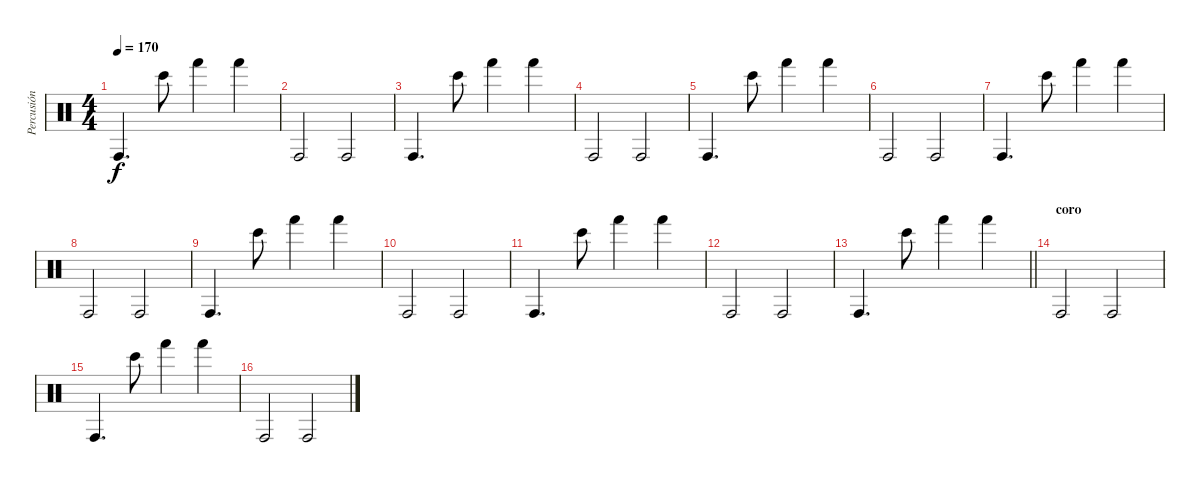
\track ("Percusión" "Percusión") {instrument percussion}
\staff {score}
\articulation defaults
\ts (4 4)
\tempo 170
\clef neutral
\ks c "Conga high (hit)".4{d dy f} "Bongo High (hit)".8 "Hand (hit)".4 "Hand (hit)".4
|
"Conga high (hit)".2 "Conga high (hit)".2 |
"Conga high (hit)".4{d} "Bongo High (hit)".8 "Hand (hit)".4 "Hand (hit)".4 |
"Conga high (hit)".2 "Conga high (hit)".2 |
"Conga high (hit)".4{d} "Bongo High (hit)".8 "Hand (hit)".4 "Hand (hit)".4 |
"Conga high (hit)".2 "Conga high (hit)".2 |
"Conga high (hit)".4{d} "Bongo High (hit)".8 "Hand (hit)".4 "Hand (hit)".4 |
"Conga high (hit)".2 "Conga high (hit)".2 |
"Conga high (hit)".4{d} "Bongo High (hit)".8 "Hand (hit)".4 "Hand (hit)".4 |
"Conga high (hit)".2 "Conga high (hit)".2 |
"Conga high (hit)".4{d} "Bongo High (hit)".8 "Hand (hit)".4 "Hand (hit)".4 |
"Conga high (hit)".2 "Conga high (hit)".2 |
\barLineRight lightlight "Conga high (hit)".4{d} "Bongo High (hit)".8 "Hand (hit)".4 "Hand (hit)".4
|
\section ("" "coro")
"Conga high (hit)".2 "Conga high (hit)".2 |
"Conga high (hit)".4{d} "Bongo High (hit)".8 "Hand (hit)".4 "Hand (hit)".4 |
"Conga high (hit)".2 "Conga high (hit)".2
